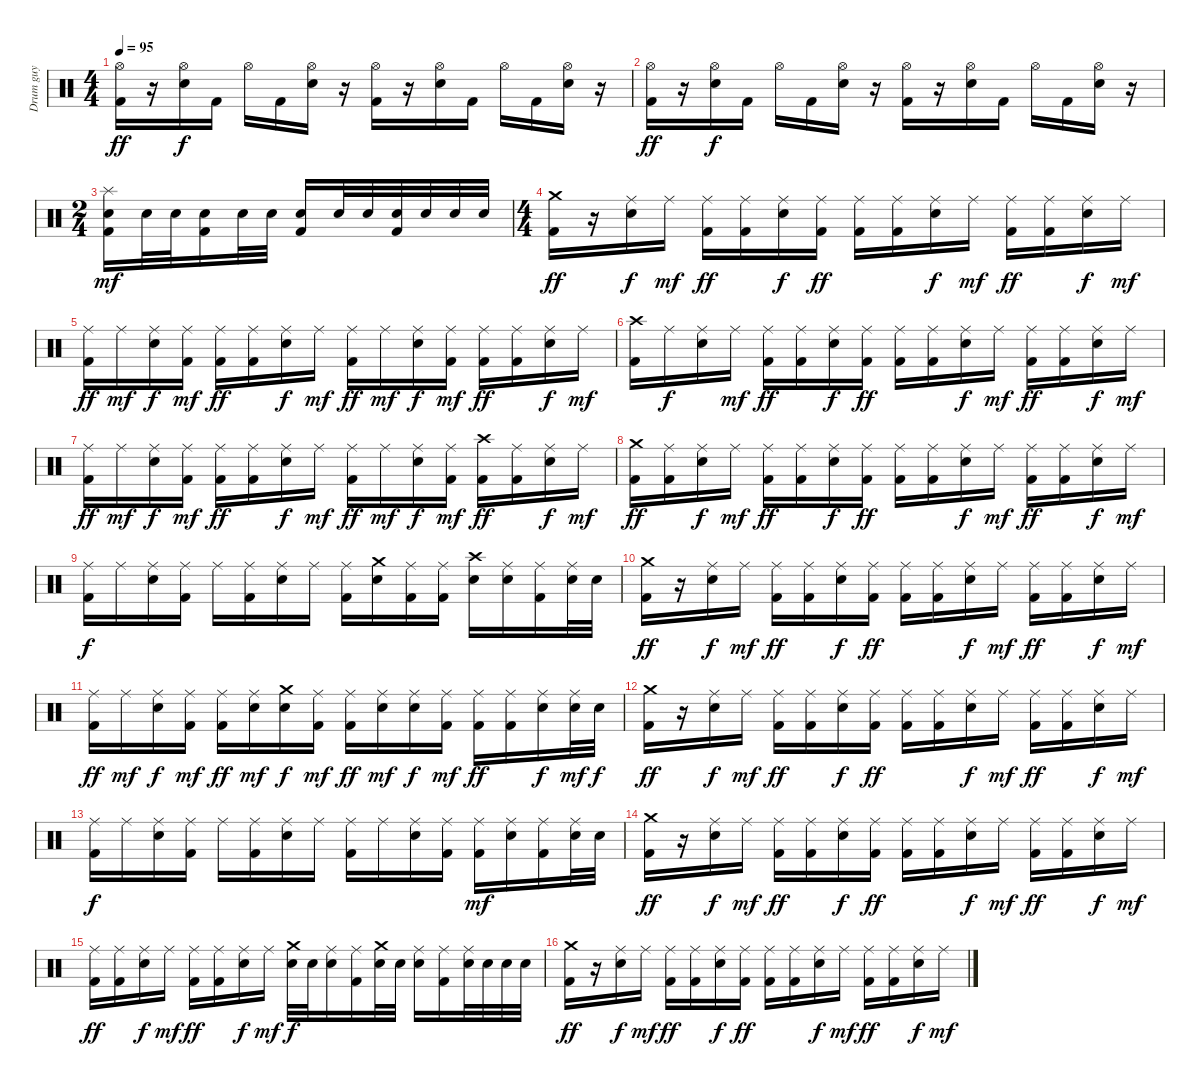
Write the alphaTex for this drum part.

\track ("Drum guy" "Drum guy") {instrument percussion}
\staff {score}
\articulation defaults
\ts (4 4)
\tempo 95
\clef neutral
\ks c
("Hi-Hat (open)" "Kick (hit) 2").16{dy ff} r.16 ("Hi-Hat (open)" "Electric Snare (hit)").16{dy f} "Kick (hit) 2".16 "Hi-Hat (open)".16 "Kick (hit) 2".16 ("Hi-Hat (open)" "Electric Snare (hit)").16 r.16 ("Hi-Hat (open)" "Kick (hit) 2").16 r.16 ("Hi-Hat (open)" "Electric Snare (hit)").16 "Kick (hit) 2".16 "Hi-Hat (open)".16 "Kick (hit) 2".16 ("Hi-Hat (open)" "Electric Snare (hit)").16 r.16 |
("Hi-Hat (open)" "Kick (hit) 2").16{dy ff} r.16 ("Hi-Hat (open)" "Electric Snare (hit)").16{dy f} "Kick (hit) 2".16 "Hi-Hat (open)".16 "Kick (hit) 2".16 ("Hi-Hat (open)" "Electric Snare (hit)").16 r.16 ("Hi-Hat (open)" "Kick (hit) 2").16 r.16 ("Hi-Hat (open)" "Electric Snare (hit)").16 "Kick (hit) 2".16 "Hi-Hat (open)".16 "Kick (hit) 2".16 ("Hi-Hat (open)" "Electric Snare (hit)").16 r.16 |
\ts (2 4)
("Splash (hit)" "Electric Snare (hit)" "Kick (hit) 2").16{dy mf} "Electric Snare (hit)".32 "Electric Snare (hit)".32 ("Electric Snare (hit)" "Kick (hit) 2").16 "Electric Snare (hit)".32 "Electric Snare (hit)".32 ("Electric Snare (hit)" "Kick (hit) 2").16 "Electric Snare (hit)".32 "Electric Snare (hit)".32 ("Electric Snare (hit)" "Kick (hit) 2").32 "Electric Snare (hit)".32 "Electric Snare (hit)".32 "Electric Snare (hit)".32 |
\ts (4 4)
("Crash medium (hit)" "Kick (hit) 2").16{dy ff} r.16 ("Ride (middle)" "Electric Snare (hit)").16{dy f} "Ride (middle)".16{dy mf} ("Ride (middle)" "Kick (hit) 2").16{dy ff} ("Ride (middle)" "Kick (hit) 2").16 ("Ride (middle)" "Electric Snare (hit)").16{dy f} ("Ride (middle)" "Kick (hit) 2").16{dy ff} ("Ride (middle)" "Kick (hit) 2").16 ("Ride (middle)" "Kick (hit) 2").16 ("Ride (middle)" "Electric Snare (hit)").16{dy f} "Ride (middle)".16{dy mf} ("Ride (middle)" "Kick (hit) 2").16{dy ff} ("Ride (middle)" "Kick (hit) 2").16 ("Ride (middle)" "Electric Snare (hit)").16{dy f} "Ride (middle)".16{dy mf} |
("Ride (middle)" "Kick (hit) 2").16{dy ff} "Ride (middle)".16{dy mf} ("Ride (middle)" "Electric Snare (hit)").16{dy f} ("Ride (middle)" "Kick (hit) 2").16{dy mf} ("Ride (middle)" "Kick (hit) 2").16{dy ff} ("Ride (middle)" "Kick (hit) 2").16 ("Ride (middle)" "Electric Snare (hit)").16{dy f} "Ride (middle)".16{dy mf} ("Ride (middle)" "Kick (hit) 2").16{dy ff} "Ride (middle)".16{dy mf} ("Ride (middle)" "Electric Snare (hit)").16{dy f} ("Ride (middle)" "Kick (hit) 2").16{dy mf} ("Ride (middle)" "Kick (hit) 2").16{dy ff} ("Ride (middle)" "Kick (hit) 2").16 ("Ride (middle)" "Electric Snare (hit)").16{dy f} "Ride (middle)".16{dy mf} |
("Crash high (hit)" "Kick (hit) 2").16 "Ride (middle)".16{dy f} ("Ride (middle)" "Electric Snare (hit)").16 "Ride (middle)".16{dy mf} ("Ride (middle)" "Kick (hit) 2").16{dy ff} ("Ride (middle)" "Kick (hit) 2").16 ("Ride (middle)" "Electric Snare (hit)").16{dy f} ("Ride (middle)" "Kick (hit) 2").16{dy ff} ("Ride (middle)" "Kick (hit) 2").16 ("Ride (middle)" "Kick (hit) 2").16 ("Ride (middle)" "Electric Snare (hit)").16{dy f} "Ride (middle)".16{dy mf} ("Ride (middle)" "Kick (hit) 2").16{dy ff} ("Ride (middle)" "Kick (hit) 2").16 ("Ride (middle)" "Electric Snare (hit)").16{dy f} "Ride (middle)".16{dy mf} |
("Ride (middle)" "Kick (hit) 2").16{dy ff} "Ride (middle)".16{dy mf} ("Ride (middle)" "Electric Snare (hit)").16{dy f} ("Ride (middle)" "Kick (hit) 2").16{dy mf} ("Ride (middle)" "Kick (hit) 2").16{dy ff} ("Ride (middle)" "Kick (hit) 2").16 ("Ride (middle)" "Electric Snare (hit)").16{dy f} "Ride (middle)".16{dy mf} ("Ride (middle)" "Kick (hit) 2").16{dy ff} "Ride (middle)".16{dy mf} ("Ride (middle)" "Electric Snare (hit)").16{dy f} ("Ride (middle)" "Kick (hit) 2").16{dy mf} ("Crash high (hit)" "Kick (hit) 2").16{dy ff} ("Ride (middle)" "Kick (hit) 2").16 ("Ride (middle)" "Electric Snare (hit)").16{dy f} "Ride (middle)".16{dy mf} |
("Crash medium (hit)" "Kick (hit) 2").16{dy ff} ("Ride (middle)" "Kick (hit) 2").16 ("Ride (middle)" "Electric Snare (hit)").16{dy f} "Ride (middle)".16{dy mf} ("Ride (middle)" "Kick (hit) 2").16{dy ff} ("Ride (middle)" "Kick (hit) 2").16 ("Ride (middle)" "Electric Snare (hit)").16{dy f} ("Ride (middle)" "Kick (hit) 2").16{dy ff} ("Ride (middle)" "Kick (hit) 2").16 ("Ride (middle)" "Kick (hit) 2").16 ("Ride (middle)" "Electric Snare (hit)").16{dy f} "Ride (middle)".16{dy mf} ("Ride (middle)" "Kick (hit) 2").16{dy ff} ("Ride (middle)" "Kick (hit) 2").16 ("Ride (middle)" "Electric Snare (hit)").16{dy f} "Ride (middle)".16{dy mf} |
("Ride (middle)" "Kick (hit) 2").16{dy f} "Ride (middle)".16 ("Ride (middle)" "Electric Snare (hit)").16 ("Ride (middle)" "Kick (hit) 2").16 "Ride (middle)".16 ("Ride (middle)" "Kick (hit) 2").16 ("Ride (middle)" "Electric Snare (hit)").16 "Ride (middle)".16 ("Ride (middle)" "Kick (hit) 2").16 ("Crash medium (hit)" "Electric Snare (hit)").16 ("Ride (middle)" "Kick (hit) 2").16 ("Ride (middle)" "Kick (hit) 2").16 ("Crash high (hit)" "Electric Snare (hit)").16 ("Ride (middle)" "Electric Snare (hit)").16 ("Ride (middle)" "Kick (hit) 2").16 ("Ride (middle)" "Electric Snare (hit)").32 "Electric Snare (hit)".32 |
("Crash medium (hit)" "Kick (hit) 2").16{dy ff} r.16 ("Ride (middle)" "Electric Snare (hit)").16{dy f} "Ride (middle)".16{dy mf} ("Ride (middle)" "Kick (hit) 2").16{dy ff} ("Ride (middle)" "Kick (hit) 2").16 ("Ride (middle)" "Electric Snare (hit)").16{dy f} ("Ride (middle)" "Kick (hit) 2").16{dy ff} ("Ride (middle)" "Kick (hit) 2").16 ("Ride (middle)" "Kick (hit) 2").16 ("Ride (middle)" "Electric Snare (hit)").16{dy f} "Ride (middle)".16{dy mf} ("Ride (middle)" "Kick (hit) 2").16{dy ff} ("Ride (middle)" "Kick (hit) 2").16 ("Ride (middle)" "Electric Snare (hit)").16{dy f} "Ride (middle)".16{dy mf} |
("Ride (middle)" "Kick (hit) 2").16{dy ff} "Ride (middle)".16{dy mf} ("Ride (middle)" "Electric Snare (hit)").16{dy f} ("Ride (middle)" "Kick (hit) 2").16{dy mf} ("Ride (middle)" "Kick (hit) 2").16{dy ff} ("Ride (middle)" "Electric Snare (hit)").16{dy mf} ("Crash medium (hit)" "Electric Snare (hit)").16{dy f} ("Ride (middle)" "Kick (hit) 2").16{dy mf} ("Ride (middle)" "Kick (hit) 2").16{dy ff} ("Ride (middle)" "Electric Snare (hit)").16{dy mf} ("Ride (middle)" "Electric Snare (hit)").16{dy f} ("Ride (middle)" "Kick (hit) 2").16{dy mf} ("Ride (middle)" "Kick (hit) 2").16{dy ff} ("Ride (middle)" "Kick (hit) 2").16 ("Ride (middle)" "Electric Snare (hit)").16{dy f} ("Ride (middle)" "Electric Snare (hit)").32{dy mf} "Electric Snare (hit)".32{dy f} |
("Crash medium (hit)" "Kick (hit) 2").16{dy ff} r.16 ("Ride (middle)" "Electric Snare (hit)").16{dy f} "Ride (middle)".16{dy mf} ("Ride (middle)" "Kick (hit) 2").16{dy ff} ("Ride (middle)" "Kick (hit) 2").16 ("Ride (middle)" "Electric Snare (hit)").16{dy f} ("Ride (middle)" "Kick (hit) 2").16{dy ff} ("Ride (middle)" "Kick (hit) 2").16 ("Ride (middle)" "Kick (hit) 2").16 ("Ride (middle)" "Electric Snare (hit)").16{dy f} "Ride (middle)".16{dy mf} ("Ride (middle)" "Kick (hit) 2").16{dy ff} ("Ride (middle)" "Kick (hit) 2").16 ("Ride (middle)" "Electric Snare (hit)").16{dy f} "Ride (middle)".16{dy mf} |
("Ride (middle)" "Kick (hit) 2").16{dy f} "Ride (middle)".16 ("Ride (middle)" "Electric Snare (hit)").16 ("Ride (middle)" "Kick (hit) 2").16 "Ride (middle)".16 ("Ride (middle)" "Kick (hit) 2").16 ("Ride (middle)" "Electric Snare (hit)").16 "Ride (middle)".16 ("Ride (middle)" "Kick (hit) 2").16 "Ride (middle)".16 ("Ride (middle)" "Electric Snare (hit)").16 ("Ride (middle)" "Kick (hit) 2").16 ("Ride (middle)" "Kick (hit) 2").16{dy mf} ("Ride (middle)" "Electric Snare (hit)").16 ("Ride (middle)" "Kick (hit) 2").16 ("Ride (middle)" "Electric Snare (hit)").32 "Electric Snare (hit)".32 |
("Crash medium (hit)" "Kick (hit) 2").16{dy ff} r.16 ("Ride (middle)" "Electric Snare (hit)").16{dy f} "Ride (middle)".16{dy mf} ("Ride (middle)" "Kick (hit) 2").16{dy ff} ("Ride (middle)" "Kick (hit) 2").16 ("Ride (middle)" "Electric Snare (hit)").16{dy f} ("Ride (middle)" "Kick (hit) 2").16{dy ff} ("Ride (middle)" "Kick (hit) 2").16 ("Ride (middle)" "Kick (hit) 2").16 ("Ride (middle)" "Electric Snare (hit)").16{dy f} "Ride (middle)".16{dy mf} ("Ride (middle)" "Kick (hit) 2").16{dy ff} ("Ride (middle)" "Kick (hit) 2").16 ("Ride (middle)" "Electric Snare (hit)").16{dy f} "Ride (middle)".16{dy mf} |
("Ride (middle)" "Kick (hit) 2").16{dy ff} ("Ride (middle)" "Kick (hit) 2").16 ("Ride (middle)" "Electric Snare (hit)").16{dy f} "Ride (middle)".16{dy mf} ("Ride (middle)" "Kick (hit) 2").16{dy ff} ("Ride (middle)" "Kick (hit) 2").16 ("Ride (middle)" "Electric Snare (hit)").16{dy f} "Ride (middle)".16{dy mf} ("Crash medium (hit)" "Electric Snare (hit)").32{dy f} "Electric Snare (hit)".32 ("Ride (middle)" "Electric Snare (hit)").16 ("Ride (middle)" "Kick (hit) 2").16 ("Crash medium (hit)" "Electric Snare (hit)").32 "Electric Snare (hit)".32 ("Ride (middle)" "Electric Snare (hit)").16 ("Ride (middle)" "Kick (hit) 2").16 ("Ride (middle)" "Electric Snare (hit)").32 "Electric Snare (hit)".32 "Electric Snare (hit)".32 "Electric Snare (hit)".32 |
("Crash medium (hit)" "Kick (hit) 2").16{dy ff} r.16 ("Ride (middle)" "Electric Snare (hit)").16{dy f} "Ride (middle)".16{dy mf} ("Ride (middle)" "Kick (hit) 2").16{dy ff} ("Ride (middle)" "Kick (hit) 2").16 ("Ride (middle)" "Electric Snare (hit)").16{dy f} ("Ride (middle)" "Kick (hit) 2").16{dy ff} ("Ride (middle)" "Kick (hit) 2").16 ("Ride (middle)" "Kick (hit) 2").16 ("Ride (middle)" "Electric Snare (hit)").16{dy f} "Ride (middle)".16{dy mf} ("Ride (middle)" "Kick (hit) 2").16{dy ff} ("Ride (middle)" "Kick (hit) 2").16 ("Ride (middle)" "Electric Snare (hit)").16{dy f} "Ride (middle)".16{dy mf}
